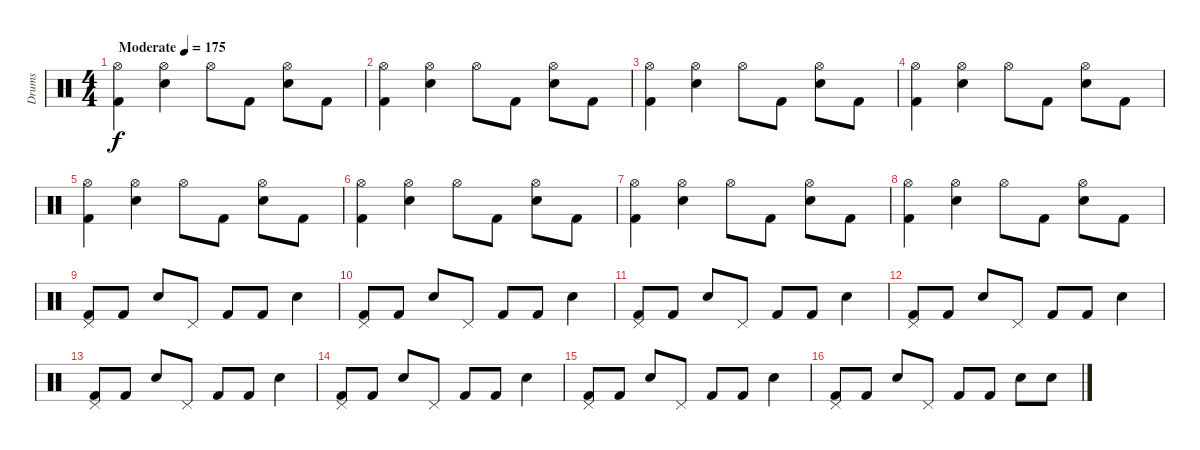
\track ("Drums" "Drums") {instrument percussion}
\staff {score}
\articulation defaults
\ts (4 4)
\tempo (175 "Moderate")
\clef neutral
\ks c
("Hi-Hat (open)" "Kick (hit) 2").4{dy f} ("Hi-Hat (open)" "Snare (hit) 2").4 "Hi-Hat (open)".8 "Kick (hit) 2".8 ("Hi-Hat (open)" "Snare (hit) 2").8 "Kick (hit) 2".8 |
("Hi-Hat (open)" "Kick (hit) 2").4 ("Hi-Hat (open)" "Snare (hit) 2").4 "Hi-Hat (open)".8 "Kick (hit) 2".8 ("Hi-Hat (open)" "Snare (hit) 2").8 "Kick (hit) 2".8 |
("Hi-Hat (open)" "Kick (hit) 2").4 ("Hi-Hat (open)" "Snare (hit) 2").4 "Hi-Hat (open)".8 "Kick (hit) 2".8 ("Hi-Hat (open)" "Snare (hit) 2").8 "Kick (hit) 2".8 |
("Hi-Hat (open)" "Kick (hit) 2").4 ("Hi-Hat (open)" "Snare (hit) 2").4 "Hi-Hat (open)".8 "Kick (hit) 2".8 ("Hi-Hat (open)" "Snare (hit) 2").8 "Kick (hit) 2".8 |
("Hi-Hat (open)" "Kick (hit) 2").4 ("Hi-Hat (open)" "Snare (hit) 2").4 "Hi-Hat (open)".8 "Kick (hit) 2".8 ("Hi-Hat (open)" "Snare (hit) 2").8 "Kick (hit) 2".8 |
("Hi-Hat (open)" "Kick (hit) 2").4 ("Hi-Hat (open)" "Snare (hit) 2").4 "Hi-Hat (open)".8 "Kick (hit) 2".8 ("Hi-Hat (open)" "Snare (hit) 2").8 "Kick (hit) 2".8 |
("Hi-Hat (open)" "Kick (hit) 2").4 ("Hi-Hat (open)" "Snare (hit) 2").4 "Hi-Hat (open)".8 "Kick (hit) 2".8 ("Hi-Hat (open)" "Snare (hit) 2").8 "Kick (hit) 2".8 |
("Hi-Hat (open)" "Kick (hit) 2").4 ("Hi-Hat (open)" "Snare (hit) 2").4 "Hi-Hat (open)".8 "Kick (hit) 2".8 ("Hi-Hat (open)" "Snare (hit) 2").8 "Kick (hit) 2".8 |
("Pedal Hi-Hat (hit)" "Kick (hit) 2").8 "Kick (hit) 2".8 "Snare (hit) 2".8 "Pedal Hi-Hat (hit)".8 "Kick (hit) 2".8 "Kick (hit) 2".8 "Snare (hit) 2".4 |
("Pedal Hi-Hat (hit)" "Kick (hit) 2").8 "Kick (hit) 2".8 "Snare (hit) 2".8 "Pedal Hi-Hat (hit)".8 "Kick (hit) 2".8 "Kick (hit) 2".8 "Snare (hit) 2".4 |
("Pedal Hi-Hat (hit)" "Kick (hit) 2").8 "Kick (hit) 2".8 "Snare (hit) 2".8 "Pedal Hi-Hat (hit)".8 "Kick (hit) 2".8 "Kick (hit) 2".8 "Snare (hit) 2".4 |
("Pedal Hi-Hat (hit)" "Kick (hit) 2").8 "Kick (hit) 2".8 "Snare (hit) 2".8 "Pedal Hi-Hat (hit)".8 "Kick (hit) 2".8 "Kick (hit) 2".8 "Snare (hit) 2".4 |
("Pedal Hi-Hat (hit)" "Kick (hit) 2").8 "Kick (hit) 2".8 "Snare (hit) 2".8 "Pedal Hi-Hat (hit)".8 "Kick (hit) 2".8 "Kick (hit) 2".8 "Snare (hit) 2".4 |
("Pedal Hi-Hat (hit)" "Kick (hit) 2").8 "Kick (hit) 2".8 "Snare (hit) 2".8 "Pedal Hi-Hat (hit)".8 "Kick (hit) 2".8 "Kick (hit) 2".8 "Snare (hit) 2".4 |
("Pedal Hi-Hat (hit)" "Kick (hit) 2").8 "Kick (hit) 2".8 "Snare (hit) 2".8 "Pedal Hi-Hat (hit)".8 "Kick (hit) 2".8 "Kick (hit) 2".8 "Snare (hit) 2".4 |
("Pedal Hi-Hat (hit)" "Kick (hit) 2").8 "Kick (hit) 2".8 "Snare (hit) 2".8 "Pedal Hi-Hat (hit)".8 "Kick (hit) 2".8 "Kick (hit) 2".8 "Snare (hit) 2".8 "Snare (hit) 2".8
